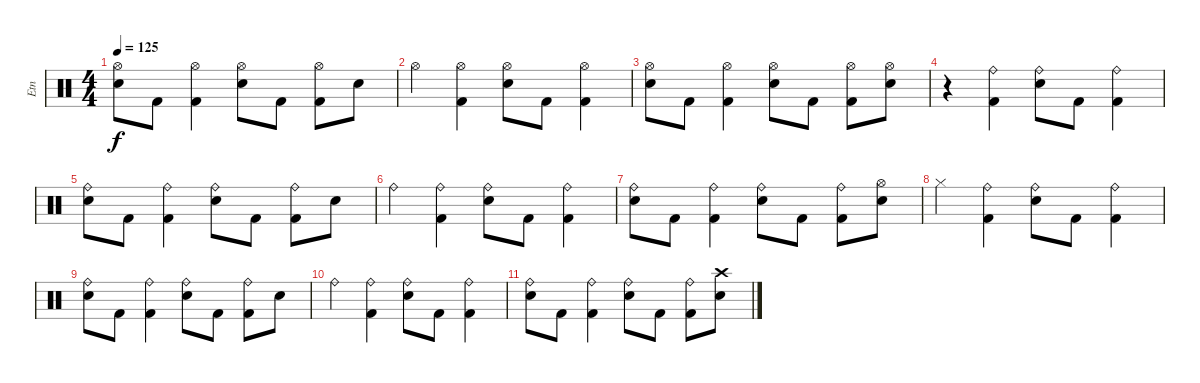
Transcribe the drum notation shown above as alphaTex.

\track ("Etn" "Etn") {instrument percussion}
\staff {score}
\articulation defaults
\ts (4 4)
\tempo 125
\clef neutral
\ks c
("Hi-Hat (open)" "Snare (hit) 2").8{dy f} "Kick (hit) 2".8 ("Hi-Hat (open)" "Kick (hit) 2").4 ("Hi-Hat (open)" "Snare (hit) 2").8 "Kick (hit) 2".8 ("Hi-Hat (open)" "Kick (hit) 2").8 "Snare (hit) 2".8 |
"Hi-Hat (open)".4 ("Hi-Hat (open)" "Kick (hit) 2").4 ("Hi-Hat (open)" "Snare (hit) 2").8 "Kick (hit) 2".8 ("Hi-Hat (open)" "Kick (hit) 2").4 |
("Hi-Hat (open)" "Snare (hit) 2").8 "Kick (hit) 2".8 ("Hi-Hat (open)" "Kick (hit) 2").4 ("Hi-Hat (open)" "Snare (hit) 2").8 "Kick (hit) 2".8 ("Hi-Hat (open)" "Kick (hit) 2").8 ("Hi-Hat (open)" "Snare (hit) 2").8 |
r.4 ("Ride (bell)" "Kick (hit) 2").4 ("Ride (bell)" "Snare (hit) 2").8 "Kick (hit) 2".8 ("Ride (bell)" "Kick (hit) 2").4 |
("Ride (bell)" "Snare (hit) 2").8 "Kick (hit) 2".8 ("Ride (bell)" "Kick (hit) 2").4 ("Ride (bell)" "Snare (hit) 2").8 "Kick (hit) 2".8 ("Ride (bell)" "Kick (hit) 2").8 "Snare (hit) 2".8 |
"Ride (bell)".4 ("Ride (bell)" "Kick (hit) 2").4 ("Ride (bell)" "Snare (hit) 2").8 "Kick (hit) 2".8 ("Ride (bell)" "Kick (hit) 2").4 |
("Ride (bell)" "Snare (hit) 2").8 "Kick (hit) 2".8 ("Ride (bell)" "Kick (hit) 2").4 ("Ride (bell)" "Snare (hit) 2").8 "Kick (hit) 2".8 ("Ride (bell)" "Kick (hit) 2").8 ("Hi-Hat (open)" "Snare (hit) 2").8 |
"Hi-Hat (closed)".4 ("Ride (bell)" "Kick (hit) 2").4 ("Ride (bell)" "Snare (hit) 2").8 "Kick (hit) 2".8 ("Ride (bell)" "Kick (hit) 2").4 |
("Ride (bell)" "Snare (hit) 2").8 "Kick (hit) 2".8 ("Ride (bell)" "Kick (hit) 2").4 ("Ride (bell)" "Snare (hit) 2").8 "Kick (hit) 2".8 ("Ride (bell)" "Kick (hit) 2").8 "Snare (hit) 2".8 |
"Ride (bell)".4 ("Ride (bell)" "Kick (hit) 2").4 ("Ride (bell)" "Snare (hit) 2").8 "Kick (hit) 2".8 ("Ride (bell)" "Kick (hit) 2").4 |
("Ride (bell)" "Snare (hit) 2").8 "Kick (hit) 2".8 ("Ride (bell)" "Kick (hit) 2").4 ("Ride (bell)" "Snare (hit) 2").8 "Kick (hit) 2".8 ("Ride (bell)" "Kick (hit) 2").8 ("Crash high (hit)" "Snare (hit) 2").8
